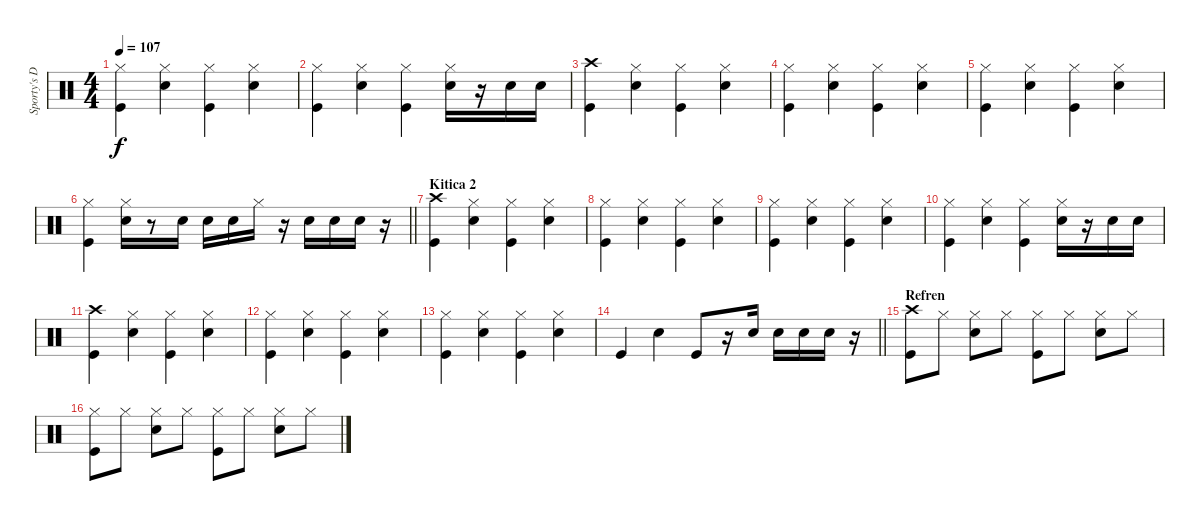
\track ("Sporty's Drums" "Sporty's D") {instrument percussion}
\staff {score}
\articulation defaults
\ts (4 4)
\tempo 107
\clef neutral
\ks c
("Hi-Hat (closed)" "Kick (hit)").4{dy f} ("Hi-Hat (closed)" "Electric Snare (hit)").4 ("Hi-Hat (closed)" "Kick (hit)").4 ("Hi-Hat (closed)" "Electric Snare (hit)").4 |
("Hi-Hat (closed)" "Kick (hit)").4 ("Hi-Hat (closed)" "Electric Snare (hit)").4 ("Hi-Hat (closed)" "Kick (hit)").4 ("Hi-Hat (closed)" "Electric Snare (hit)").16 r.16 "Electric Snare (hit)".16 "Electric Snare (hit)".16 |
("Crash high (hit)" "Kick (hit)").4 ("Hi-Hat (closed)" "Electric Snare (hit)").4 ("Hi-Hat (closed)" "Kick (hit)").4 ("Hi-Hat (closed)" "Electric Snare (hit)").4 |
("Hi-Hat (closed)" "Kick (hit)").4 ("Hi-Hat (closed)" "Electric Snare (hit)").4 ("Hi-Hat (closed)" "Kick (hit)").4 ("Hi-Hat (closed)" "Electric Snare (hit)").4 |
("Hi-Hat (closed)" "Kick (hit)").4 ("Hi-Hat (closed)" "Electric Snare (hit)").4 ("Hi-Hat (closed)" "Kick (hit)").4 ("Hi-Hat (closed)" "Electric Snare (hit)").4 |
\barLineRight lightlight
("Hi-Hat (closed)" "Kick (hit)").4 ("Hi-Hat (closed)" "Electric Snare (hit)").16 r.8 "Electric Snare (hit)".16 "Electric Snare (hit)".16 "Electric Snare (hit)".16 "Hi-Hat (closed)".16 r.16 "Electric Snare (hit)".16 "Electric Snare (hit)".16 "Electric Snare (hit)".16 r.16 |
\section ("" "Kitica 2")
("Crash high (hit)" "Kick (hit)").4 ("Hi-Hat (closed)" "Electric Snare (hit)").4 ("Hi-Hat (closed)" "Kick (hit)").4 ("Hi-Hat (closed)" "Electric Snare (hit)").4 |
("Hi-Hat (closed)" "Kick (hit)").4 ("Hi-Hat (closed)" "Electric Snare (hit)").4 ("Hi-Hat (closed)" "Kick (hit)").4 ("Hi-Hat (closed)" "Electric Snare (hit)").4 |
("Hi-Hat (closed)" "Kick (hit)").4 ("Hi-Hat (closed)" "Electric Snare (hit)").4 ("Hi-Hat (closed)" "Kick (hit)").4 ("Hi-Hat (closed)" "Electric Snare (hit)").4 |
("Hi-Hat (closed)" "Kick (hit)").4 ("Hi-Hat (closed)" "Electric Snare (hit)").4 ("Hi-Hat (closed)" "Kick (hit)").4 ("Hi-Hat (closed)" "Electric Snare (hit)").16 r.16 "Electric Snare (hit)".16 "Electric Snare (hit)".16 |
("Crash high (hit)" "Kick (hit)").4 ("Hi-Hat (closed)" "Electric Snare (hit)").4 ("Hi-Hat (closed)" "Kick (hit)").4 ("Hi-Hat (closed)" "Electric Snare (hit)").4 |
("Hi-Hat (closed)" "Kick (hit)").4 ("Hi-Hat (closed)" "Electric Snare (hit)").4 ("Hi-Hat (closed)" "Kick (hit)").4 ("Hi-Hat (closed)" "Electric Snare (hit)").4 |
("Hi-Hat (closed)" "Kick (hit)").4 ("Hi-Hat (closed)" "Electric Snare (hit)").4 ("Hi-Hat (closed)" "Kick (hit)").4 ("Hi-Hat (closed)" "Electric Snare (hit)").4 |
\barLineRight lightlight "Kick (hit)".4 "Electric Snare (hit)".4 "Kick (hit)".8
r.16 "Electric Snare (hit)".16 "Electric Snare (hit)".16 "Electric Snare (hit)".16 "Electric Snare (hit)".16 r.16 |
\section ("" "Refren")
("Crash high (hit)" "Kick (hit)").8 "Hi-Hat (closed)".8 ("Hi-Hat (closed)" "Electric Snare (hit)").8 "Hi-Hat (closed)".8 ("Hi-Hat (closed)" "Kick (hit)").8 "Hi-Hat (closed)".8 ("Hi-Hat (closed)" "Electric Snare (hit)").8 "Hi-Hat (closed)".8 |
("Hi-Hat (closed)" "Kick (hit)").8 "Hi-Hat (closed)".8 ("Hi-Hat (closed)" "Electric Snare (hit)").8 "Hi-Hat (closed)".8 ("Hi-Hat (closed)" "Kick (hit)").8 "Hi-Hat (closed)".8 ("Hi-Hat (closed)" "Electric Snare (hit)").8 "Hi-Hat (closed)".8
